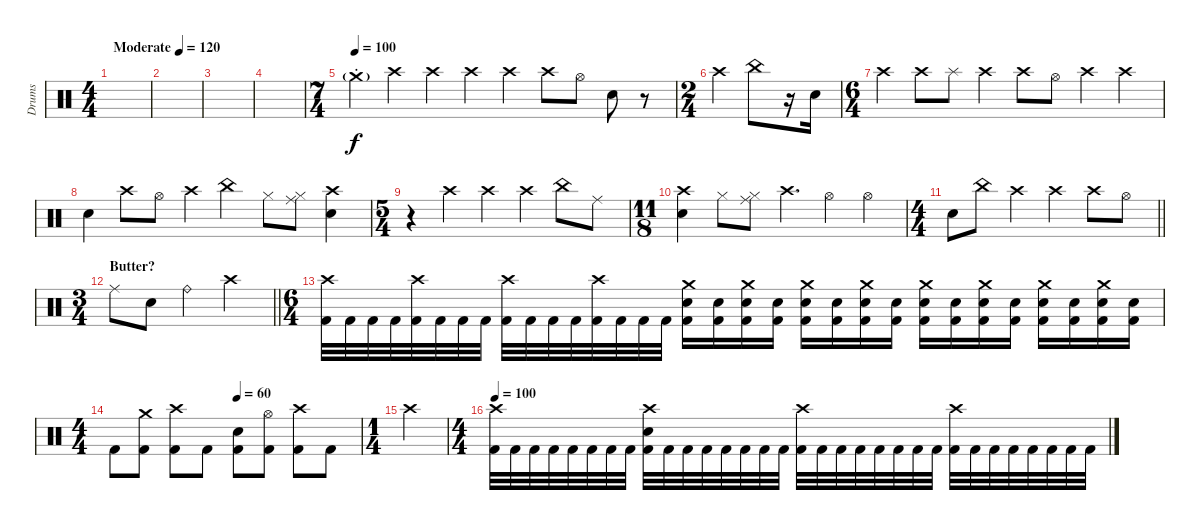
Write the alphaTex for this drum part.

\track ("Drums" "Drums") {instrument percussion}
\staff {score}
\articulation defaults
\ts (4 4)
\tempo (120 "Moderate")
\clef neutral
\ks c
|
|
|
|
\ts (7 4)
\tempo (100)
"Crash medium (hit)"{g st}.4 "Crash high (hit)".4{dy f} "Crash high (hit)".4 "Crash high (hit)".4 "Crash high (hit)".4 "Crash high (hit)".8 "Hi-Hat (open)".8 "Snare (hit) 2".8 r.8 |
\ts (2 4)
"Crash high (hit)".4 "China (hit)".8 r.16 "Snare (hit) 2".16 |
\ts (6 4)
"Crash high (hit)".4 "Crash high (hit)".8 "Splash (hit)".8 "Crash high (hit)".4 "Crash high (hit)".8 "Hi-Hat (open)".8 "Crash high (hit)".4 "Crash high (hit)".4 |
"Snare (hit) 2".4 "Crash high (hit)".8 "Hi-Hat (open)".8 "Crash high (hit)".4 "China (hit)".4 "Hi-Hat (closed)".8 ("Ride (middle)" "Hi-Hat (closed)").8 ("Crash high (hit)" "Snare (hit) 2").4 |
\ts (5 4)
r.4 "Crash high (hit)".4 "Crash high (hit)".4 "Crash high (hit)".4 "China (hit)".8 "Ride (middle)".8 |
\ts (11 8)
("Crash high (hit)" "Snare (hit) 2").4 "Hi-Hat (closed)".8 ("Ride (middle)" "Hi-Hat (closed)").8 "Crash high (hit)".4{d} "Hi-Hat (open)".4 "Hi-Hat (open)".4 |
\ts (4 4)
\barLineRight lightlight "Snare (hit) 2".8 "China (hit)".8 "Crash high (hit)".4 "Crash high (hit)".4 "Crash high (hit)".8 "Hi-Hat (open)".8
|
\ts (3 4)
\section ("" "Butter?")
\barLineRight lightlight "Ride (middle)".8 "Snare (hit) 2".8 "Ride (bell)".4 "Crash high (hit)".4
|
\ts (6 4)
("Crash high (hit)" "Kick (hit) 2").32{volume 9} "Kick (hit) 2".32 "Kick (hit) 2".32 "Kick (hit) 2".32 ("Crash high (hit)" "Kick (hit) 2").32 "Kick (hit) 2".32 "Kick (hit) 2".32 "Kick (hit) 2".32 ("Crash high (hit)" "Kick (hit) 2").32 "Kick (hit) 2".32 "Kick (hit) 2".32 "Kick (hit) 2".32 ("Crash high (hit)" "Kick (hit) 2").32 "Kick (hit) 2".32 "Kick (hit) 2".32 "Kick (hit) 2".32 ("Crash medium (hit)" "Snare (hit) 2" "Kick (hit) 2").16 ("Snare (hit) 2" "Kick (hit) 2").16 ("Crash medium (hit)" "Snare (hit) 2" "Kick (hit) 2").16 ("Snare (hit) 2" "Kick (hit) 2").16 ("Crash medium (hit)" "Snare (hit) 2" "Kick (hit) 2").16 ("Snare (hit) 2" "Kick (hit) 2").16 ("Crash medium (hit)" "Snare (hit) 2" "Kick (hit) 2").16 ("Snare (hit) 2" "Kick (hit) 2").16 ("Crash medium (hit)" "Snare (hit) 2" "Kick (hit) 2").16 ("Snare (hit) 2" "Kick (hit) 2").16 ("Crash medium (hit)" "Snare (hit) 2" "Kick (hit) 2").16 ("Snare (hit) 2" "Kick (hit) 2").16 ("Crash medium (hit)" "Snare (hit) 2" "Kick (hit) 2").16 ("Snare (hit) 2" "Kick (hit) 2").16 ("Crash medium (hit)" "Snare (hit) 2" "Kick (hit) 2").16 ("Snare (hit) 2" "Kick (hit) 2").16 |
\ts (4 4)
\tempo (60 0.5)
"Kick (hit) 2".8 ("Crash medium (hit)" "Kick (hit) 2").8 ("Crash high (hit)" "Kick (hit) 2").8 "Kick (hit) 2".8 ("Snare (hit) 2" "Kick (hit) 2").8 ("Hi-Hat (open)" "Kick (hit) 2").8 ("Crash high (hit)" "Kick (hit) 2").8 "Kick (hit) 2".8 |
\ts (1 4)
"Crash high (hit)".4 |
\ts (4 4)
\tempo 100
("Crash high (hit)" "Kick (hit) 2").32 "Kick (hit) 2".32 "Kick (hit) 2".32 "Kick (hit) 2".32 "Kick (hit) 2".32 "Kick (hit) 2".32 "Kick (hit) 2".32 "Kick (hit) 2".32 ("Crash high (hit)" "Snare (hit) 2" "Kick (hit) 2").32 "Kick (hit) 2".32 "Kick (hit) 2".32 "Kick (hit) 2".32 "Kick (hit) 2".32 "Kick (hit) 2".32 "Kick (hit) 2".32 "Kick (hit) 2".32 ("Crash high (hit)" "Kick (hit) 2").32 "Kick (hit) 2".32 "Kick (hit) 2".32 "Kick (hit) 2".32 "Kick (hit) 2".32 "Kick (hit) 2".32 "Kick (hit) 2".32 "Kick (hit) 2".32 ("Crash high (hit)" "Kick (hit) 2").32 "Kick (hit) 2".32 "Kick (hit) 2".32 "Kick (hit) 2".32 "Kick (hit) 2".32 "Kick (hit) 2".32 "Kick (hit) 2".32 "Kick (hit) 2".32
